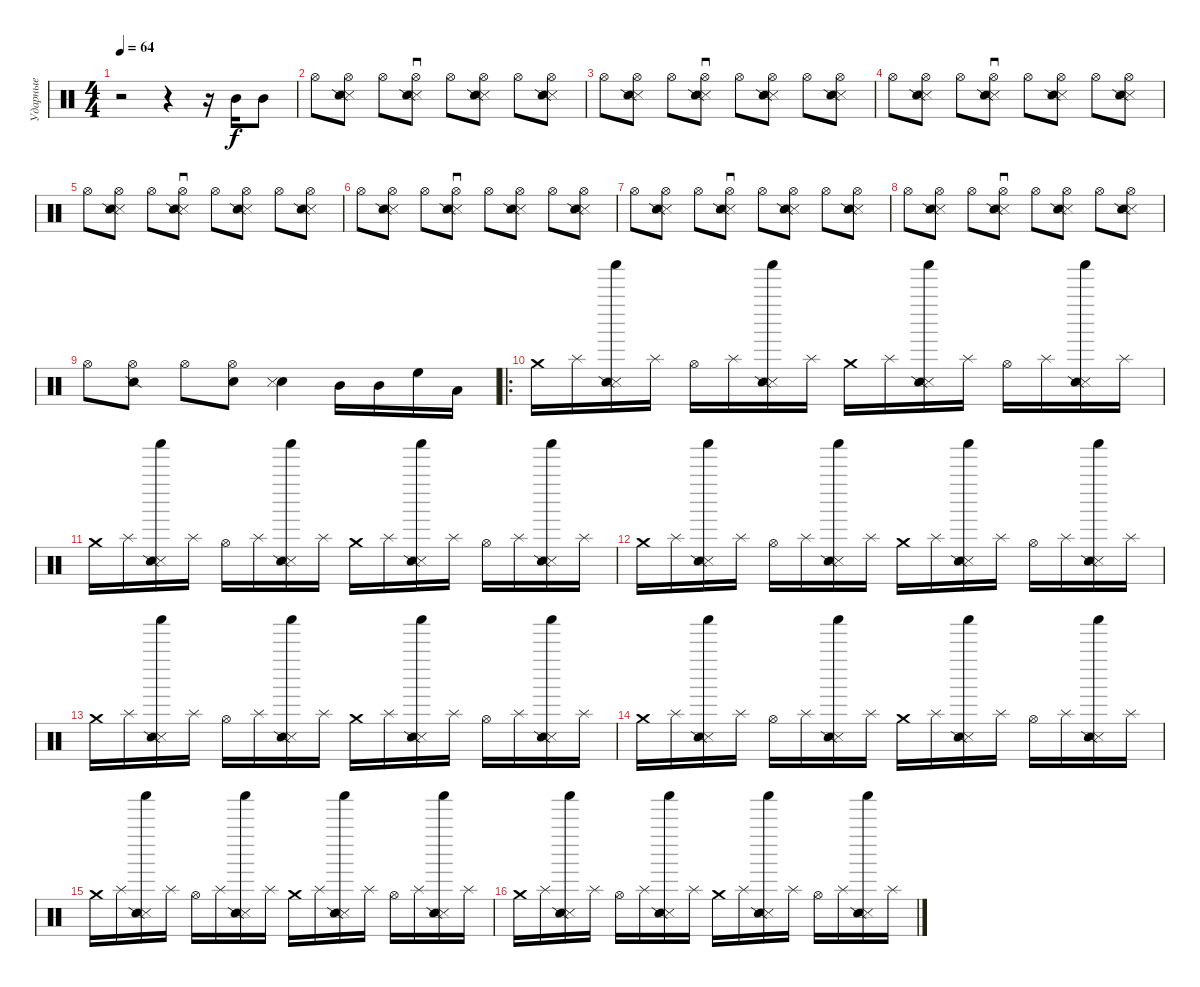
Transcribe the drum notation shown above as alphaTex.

\track ("Ударные" "Ударные") {instrument percussion}
\staff {score}
\articulation defaults
\ts (4 4)
\tempo 64
\clef neutral
\ks c
r.2{dy f} r.4 r.16 "Mid Tom (hit)".16 "Mid Tom (hit)".8 |
"Hi-Hat (open)".8{volume 7} ("Hi-Hat (open)" "Snare (side stick) 3" "Snare (side stick) 2").8 "Hi-Hat (open)".8 ("Hi-Hat (open)" "Snare (side stick) 3" "Snare (side stick) 2").8{sd} "Hi-Hat (open)".8 ("Hi-Hat (open)" "Snare (side stick) 3" "Snare (side stick) 2").8 "Hi-Hat (open)".8 ("Hi-Hat (open)" "Snare (side stick) 3" "Snare (side stick) 2").8 |
"Hi-Hat (open)".8{volume 7} ("Hi-Hat (open)" "Snare (side stick) 3" "Snare (side stick) 2").8 "Hi-Hat (open)".8 ("Hi-Hat (open)" "Snare (side stick) 3" "Snare (side stick) 2").8{sd} "Hi-Hat (open)".8 ("Hi-Hat (open)" "Snare (side stick) 3" "Snare (side stick) 2").8 "Hi-Hat (open)".8 ("Hi-Hat (open)" "Snare (side stick) 3" "Snare (side stick) 2").8 |
"Hi-Hat (open)".8{volume 7} ("Hi-Hat (open)" "Snare (side stick) 3" "Snare (side stick) 2").8 "Hi-Hat (open)".8 ("Hi-Hat (open)" "Snare (side stick) 3" "Snare (side stick) 2").8{sd} "Hi-Hat (open)".8 ("Hi-Hat (open)" "Snare (side stick) 3" "Snare (side stick) 2").8 "Hi-Hat (open)".8 ("Hi-Hat (open)" "Snare (side stick) 3" "Snare (side stick) 2").8 |
"Hi-Hat (open)".8{volume 7} ("Hi-Hat (open)" "Snare (side stick) 3" "Snare (side stick) 2").8 "Hi-Hat (open)".8 ("Hi-Hat (open)" "Snare (side stick) 3" "Snare (side stick) 2").8{sd} "Hi-Hat (open)".8 ("Hi-Hat (open)" "Snare (side stick) 3" "Snare (side stick) 2").8 "Hi-Hat (open)".8 ("Hi-Hat (open)" "Snare (side stick) 3" "Snare (side stick) 2").8 |
"Hi-Hat (open)".8{volume 7} ("Hi-Hat (open)" "Snare (side stick) 3" "Snare (side stick) 2").8 "Hi-Hat (open)".8 ("Hi-Hat (open)" "Snare (side stick) 3" "Snare (side stick) 2").8{sd} "Hi-Hat (open)".8 ("Hi-Hat (open)" "Snare (side stick) 3" "Snare (side stick) 2").8 "Hi-Hat (open)".8 ("Hi-Hat (open)" "Snare (side stick) 3" "Snare (side stick) 2").8 |
"Hi-Hat (open)".8{volume 7} ("Hi-Hat (open)" "Snare (side stick) 3" "Snare (side stick) 2").8 "Hi-Hat (open)".8 ("Hi-Hat (open)" "Snare (side stick) 3" "Snare (side stick) 2").8{sd} "Hi-Hat (open)".8 ("Hi-Hat (open)" "Snare (side stick) 3" "Snare (side stick) 2").8 "Hi-Hat (open)".8 ("Hi-Hat (open)" "Snare (side stick) 3" "Snare (side stick) 2").8 |
"Hi-Hat (open)".8{volume 7} ("Hi-Hat (open)" "Snare (side stick) 3" "Snare (side stick) 2").8 "Hi-Hat (open)".8 ("Hi-Hat (open)" "Snare (side stick) 3" "Snare (side stick) 2").8{sd} "Hi-Hat (open)".8 ("Hi-Hat (open)" "Snare (side stick) 3" "Snare (side stick) 2").8 "Hi-Hat (open)".8 ("Hi-Hat (open)" "Snare (side stick) 3" "Snare (side stick) 2").8 |
"Hi-Hat (open)".8 ("Hi-Hat (open)" "Snare (side stick) 2").8 "Hi-Hat (open)".8 ("Hi-Hat (open)" "Snare (hit)").8 ("Snare (hit) 2" "Snare (side stick) 3").4{volume 10} "Mid Tom (hit)".16{volume 10} "Mid Tom (hit)".16 "High Floor Tom (hit)".16 "Low Tom (hit)".16 |
\ro "Crash medium (hit)".16 "Splash (hit)".16
("Snare (side stick) 3" "Shaker (hit)" "Snare (side stick) 2").16 "Splash (hit)".16 "Hi-Hat (open)".16 "Splash (hit)".16 ("Snare (side stick) 3" "Shaker (hit)" "Snare (side stick) 2").16 "Splash (hit)".16 "Crash medium (hit)".16 "Splash (hit)".16 ("Snare (side stick) 3" "Shaker (hit)" "Snare (side stick) 2").16 "Splash (hit)".16 "Hi-Hat (open)".16 "Splash (hit)".16 ("Snare (side stick) 3" "Shaker (hit)" "Snare (side stick) 2").16 "Splash (hit)".16 |
"Crash medium (hit)".16 "Splash (hit)".16 ("Snare (side stick) 3" "Shaker (hit)" "Snare (side stick) 2").16 "Splash (hit)".16 "Hi-Hat (open)".16 "Splash (hit)".16 ("Snare (side stick) 3" "Shaker (hit)" "Snare (side stick) 2").16 "Splash (hit)".16 "Crash medium (hit)".16 "Splash (hit)".16 ("Snare (side stick) 3" "Shaker (hit)" "Snare (side stick) 2").16 "Splash (hit)".16 "Hi-Hat (open)".16 "Splash (hit)".16 ("Snare (side stick) 3" "Shaker (hit)" "Snare (side stick) 2").16 "Splash (hit)".16 |
"Crash medium (hit)".16 "Splash (hit)".16 ("Snare (side stick) 3" "Shaker (hit)" "Snare (side stick) 2").16 "Splash (hit)".16 "Hi-Hat (open)".16 "Splash (hit)".16 ("Snare (side stick) 3" "Shaker (hit)" "Snare (side stick) 2").16 "Splash (hit)".16 "Crash medium (hit)".16 "Splash (hit)".16 ("Snare (side stick) 3" "Shaker (hit)" "Snare (side stick) 2").16 "Splash (hit)".16 "Hi-Hat (open)".16 "Splash (hit)".16 ("Snare (side stick) 3" "Shaker (hit)" "Snare (side stick) 2").16 "Splash (hit)".16 |
"Crash medium (hit)".16 "Splash (hit)".16 ("Snare (side stick) 3" "Shaker (hit)" "Snare (side stick) 2").16 "Splash (hit)".16 "Hi-Hat (open)".16 "Splash (hit)".16 ("Snare (side stick) 3" "Shaker (hit)" "Snare (side stick) 2").16 "Splash (hit)".16 "Crash medium (hit)".16 "Splash (hit)".16 ("Snare (side stick) 3" "Shaker (hit)" "Snare (side stick) 2").16 "Splash (hit)".16 "Hi-Hat (open)".16 "Splash (hit)".16 ("Snare (side stick) 3" "Shaker (hit)" "Snare (side stick) 2").16 "Splash (hit)".16 |
"Crash medium (hit)".16 "Splash (hit)".16 ("Snare (side stick) 3" "Shaker (hit)" "Snare (side stick) 2").16 "Splash (hit)".16 "Hi-Hat (open)".16 "Splash (hit)".16 ("Snare (side stick) 3" "Shaker (hit)" "Snare (side stick) 2").16 "Splash (hit)".16 "Crash medium (hit)".16 "Splash (hit)".16 ("Snare (side stick) 3" "Shaker (hit)" "Snare (side stick) 2").16 "Splash (hit)".16 "Hi-Hat (open)".16 "Splash (hit)".16 ("Snare (side stick) 3" "Shaker (hit)" "Snare (side stick) 2").16 "Splash (hit)".16 |
"Crash medium (hit)".16 "Splash (hit)".16 ("Snare (side stick) 3" "Shaker (hit)" "Snare (side stick) 2").16 "Splash (hit)".16 "Hi-Hat (open)".16 "Splash (hit)".16 ("Snare (side stick) 3" "Shaker (hit)" "Snare (side stick) 2").16 "Splash (hit)".16 "Crash medium (hit)".16 "Splash (hit)".16 ("Snare (side stick) 3" "Shaker (hit)" "Snare (side stick) 2").16 "Splash (hit)".16 "Hi-Hat (open)".16 "Splash (hit)".16 ("Snare (side stick) 3" "Shaker (hit)" "Snare (side stick) 2").16 "Splash (hit)".16 |
"Crash medium (hit)".16 "Splash (hit)".16 ("Snare (side stick) 3" "Shaker (hit)" "Snare (side stick) 2").16 "Splash (hit)".16 "Hi-Hat (open)".16 "Splash (hit)".16 ("Snare (side stick) 3" "Shaker (hit)" "Snare (side stick) 2").16 "Splash (hit)".16 "Crash medium (hit)".16 "Splash (hit)".16 ("Snare (side stick) 3" "Shaker (hit)" "Snare (side stick) 2").16 "Splash (hit)".16 "Hi-Hat (open)".16 "Splash (hit)".16 ("Snare (side stick) 3" "Shaker (hit)" "Snare (side stick) 2").16 "Splash (hit)".16
